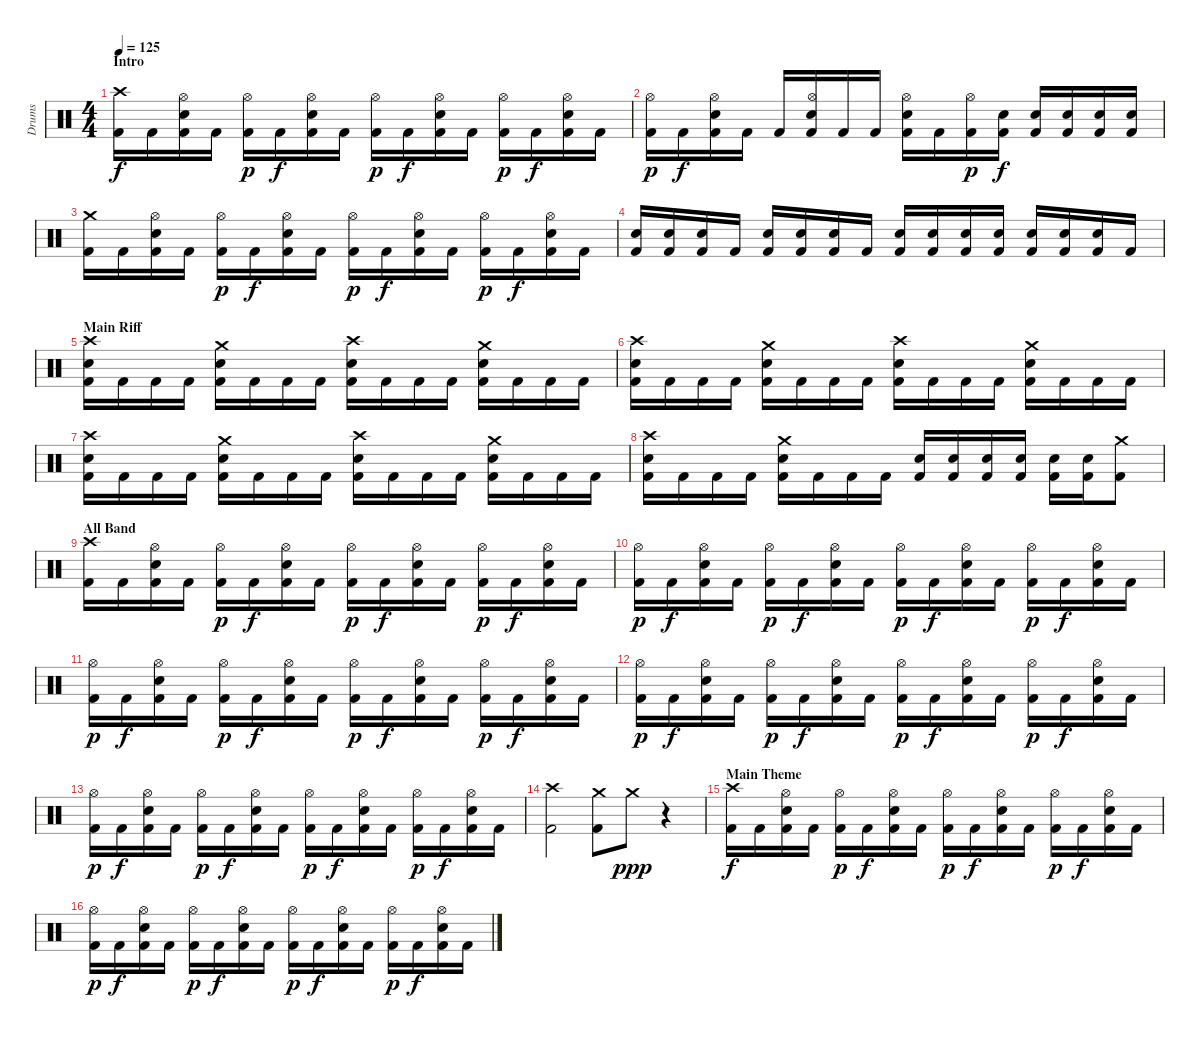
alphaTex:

\track ("Drums" "Drums") {instrument percussion}
\staff {score}
\articulation defaults
\ts (4 4)
\section ("" "Intro")
\tempo 125
\clef neutral
\ks c
("Crash high (hit)" "Kick (hit) 2").16{dy f} "Kick (hit) 2".16 ("Hi-Hat (open)" "Snare (hit) 2" "Kick (hit) 2").16 "Kick (hit) 2".16 ("Hi-Hat (open)" "Kick (hit) 2").16{dy p} "Kick (hit) 2".16{dy f} ("Hi-Hat (open)" "Snare (hit) 2" "Kick (hit) 2").16 "Kick (hit) 2".16 ("Hi-Hat (open)" "Kick (hit) 2").16{dy p} "Kick (hit) 2".16{dy f} ("Hi-Hat (open)" "Snare (hit) 2" "Kick (hit) 2").16 "Kick (hit) 2".16 ("Hi-Hat (open)" "Kick (hit) 2").16{dy p} "Kick (hit) 2".16{dy f} ("Hi-Hat (open)" "Snare (hit) 2" "Kick (hit) 2").16 "Kick (hit) 2".16 |
("Hi-Hat (open)" "Kick (hit) 2").16{dy p} "Kick (hit) 2".16{dy f} ("Hi-Hat (open)" "Snare (hit) 2" "Kick (hit) 2").16 "Kick (hit) 2".16 "Kick (hit) 2".16 ("Hi-Hat (open)" "Snare (hit) 2" "Kick (hit) 2").16 "Kick (hit) 2".16 "Kick (hit) 2".16 ("Hi-Hat (open)" "Snare (hit) 2" "Kick (hit) 2").16 "Kick (hit) 2".16 ("Hi-Hat (open)" "Kick (hit) 2").16{dy p} ("Snare (hit) 2" "Kick (hit) 2").16{dy f} ("Snare (hit) 2" "Kick (hit) 2").16 ("Snare (hit) 2" "Kick (hit) 2").16 ("Snare (hit) 2" "Kick (hit) 2").16 ("Snare (hit) 2" "Kick (hit) 2").16 |
("Crash medium (hit)" "Kick (hit) 2").16 "Kick (hit) 2".16 ("Hi-Hat (open)" "Snare (hit) 2" "Kick (hit) 2").16 "Kick (hit) 2".16 ("Hi-Hat (open)" "Kick (hit) 2").16{dy p} "Kick (hit) 2".16{dy f} ("Hi-Hat (open)" "Snare (hit) 2" "Kick (hit) 2").16 "Kick (hit) 2".16 ("Hi-Hat (open)" "Kick (hit) 2").16{dy p} "Kick (hit) 2".16{dy f} ("Hi-Hat (open)" "Snare (hit) 2" "Kick (hit) 2").16 "Kick (hit) 2".16 ("Hi-Hat (open)" "Kick (hit) 2").16{dy p} "Kick (hit) 2".16{dy f} ("Hi-Hat (open)" "Snare (hit) 2" "Kick (hit) 2").16 "Kick (hit) 2".16 |
("Snare (hit) 2" "Kick (hit) 2").16 ("Snare (hit) 2" "Kick (hit) 2").16 ("Snare (hit) 2" "Kick (hit) 2").16 "Kick (hit) 2".16 ("Snare (hit) 2" "Kick (hit) 2").16 ("Snare (hit) 2" "Kick (hit) 2").16 ("Snare (hit) 2" "Kick (hit) 2").16 "Kick (hit) 2".16 ("Snare (hit) 2" "Kick (hit) 2").16 ("Snare (hit) 2" "Kick (hit) 2").16 ("Snare (hit) 2" "Kick (hit) 2").16 ("Snare (hit) 2" "Kick (hit) 2").16 ("Snare (hit) 2" "Kick (hit) 2").16 ("Snare (hit) 2" "Kick (hit) 2").16 ("Snare (hit) 2" "Kick (hit) 2").16 "Kick (hit) 2".16 |
\section ("" "Main Riff")
("Crash high (hit)" "Snare (hit) 2" "Kick (hit) 2").16 "Kick (hit) 2".16 "Kick (hit) 2".16 "Kick (hit) 2".16 ("Crash medium (hit)" "Snare (hit) 2" "Kick (hit) 2").16 "Kick (hit) 2".16 "Kick (hit) 2".16 "Kick (hit) 2".16 ("Crash high (hit)" "Snare (hit) 2" "Kick (hit) 2").16 "Kick (hit) 2".16 "Kick (hit) 2".16 "Kick (hit) 2".16 ("Crash medium (hit)" "Snare (hit) 2" "Kick (hit) 2").16 "Kick (hit) 2".16 "Kick (hit) 2".16 "Kick (hit) 2".16 |
("Crash high (hit)" "Snare (hit) 2" "Kick (hit) 2").16 "Kick (hit) 2".16 "Kick (hit) 2".16 "Kick (hit) 2".16 ("Crash medium (hit)" "Snare (hit) 2" "Kick (hit) 2").16 "Kick (hit) 2".16 "Kick (hit) 2".16 "Kick (hit) 2".16 ("Crash high (hit)" "Snare (hit) 2" "Kick (hit) 2").16 "Kick (hit) 2".16 "Kick (hit) 2".16 "Kick (hit) 2".16 ("Crash medium (hit)" "Snare (hit) 2" "Kick (hit) 2").16 "Kick (hit) 2".16 "Kick (hit) 2".16 "Kick (hit) 2".16 |
("Crash high (hit)" "Snare (hit) 2" "Kick (hit) 2").16 "Kick (hit) 2".16 "Kick (hit) 2".16 "Kick (hit) 2".16 ("Crash medium (hit)" "Snare (hit) 2" "Kick (hit) 2").16 "Kick (hit) 2".16 "Kick (hit) 2".16 "Kick (hit) 2".16 ("Crash high (hit)" "Snare (hit) 2" "Kick (hit) 2").16 "Kick (hit) 2".16 "Kick (hit) 2".16 "Kick (hit) 2".16 ("Crash medium (hit)" "Snare (hit) 2" "Kick (hit) 2").16 "Kick (hit) 2".16 "Kick (hit) 2".16 "Kick (hit) 2".16 |
("Crash high (hit)" "Snare (hit) 2" "Kick (hit) 2").16 "Kick (hit) 2".16 "Kick (hit) 2".16 "Kick (hit) 2".16 ("Crash medium (hit)" "Snare (hit) 2" "Kick (hit) 2").16 "Kick (hit) 2".16 "Kick (hit) 2".16 "Kick (hit) 2".16 ("Snare (hit) 2" "Kick (hit) 2").16 ("Snare (hit) 2" "Kick (hit) 2").16 ("Snare (hit) 2" "Kick (hit) 2").16 ("Snare (hit) 2" "Kick (hit) 2").16 ("Snare (hit) 2" "Kick (hit) 2").16 ("Snare (hit) 2" "Kick (hit) 2").16 ("Crash medium (hit)" "Kick (hit) 2").8 |
\section ("" "All Band")
("Crash high (hit)" "Kick (hit) 2").16 "Kick (hit) 2".16 ("Hi-Hat (open)" "Snare (hit) 2" "Kick (hit) 2").16 "Kick (hit) 2".16 ("Hi-Hat (open)" "Kick (hit) 2").16{dy p} "Kick (hit) 2".16{dy f} ("Hi-Hat (open)" "Snare (hit) 2" "Kick (hit) 2").16 "Kick (hit) 2".16 ("Hi-Hat (open)" "Kick (hit) 2").16{dy p} "Kick (hit) 2".16{dy f} ("Hi-Hat (open)" "Snare (hit) 2" "Kick (hit) 2").16 "Kick (hit) 2".16 ("Hi-Hat (open)" "Kick (hit) 2").16{dy p} "Kick (hit) 2".16{dy f} ("Hi-Hat (open)" "Snare (hit) 2" "Kick (hit) 2").16 "Kick (hit) 2".16 |
("Hi-Hat (open)" "Kick (hit) 2").16{dy p} "Kick (hit) 2".16{dy f} ("Hi-Hat (open)" "Snare (hit) 2" "Kick (hit) 2").16 "Kick (hit) 2".16 ("Hi-Hat (open)" "Kick (hit) 2").16{dy p} "Kick (hit) 2".16{dy f} ("Hi-Hat (open)" "Snare (hit) 2" "Kick (hit) 2").16 "Kick (hit) 2".16 ("Hi-Hat (open)" "Kick (hit) 2").16{dy p} "Kick (hit) 2".16{dy f} ("Hi-Hat (open)" "Snare (hit) 2" "Kick (hit) 2").16 "Kick (hit) 2".16 ("Hi-Hat (open)" "Kick (hit) 2").16{dy p} "Kick (hit) 2".16{dy f} ("Hi-Hat (open)" "Snare (hit) 2" "Kick (hit) 2").16 "Kick (hit) 2".16 |
("Hi-Hat (open)" "Kick (hit) 2").16{dy p} "Kick (hit) 2".16{dy f} ("Hi-Hat (open)" "Snare (hit) 2" "Kick (hit) 2").16 "Kick (hit) 2".16 ("Hi-Hat (open)" "Kick (hit) 2").16{dy p} "Kick (hit) 2".16{dy f} ("Hi-Hat (open)" "Snare (hit) 2" "Kick (hit) 2").16 "Kick (hit) 2".16 ("Hi-Hat (open)" "Kick (hit) 2").16{dy p} "Kick (hit) 2".16{dy f} ("Hi-Hat (open)" "Snare (hit) 2" "Kick (hit) 2").16 "Kick (hit) 2".16 ("Hi-Hat (open)" "Kick (hit) 2").16{dy p} "Kick (hit) 2".16{dy f} ("Hi-Hat (open)" "Snare (hit) 2" "Kick (hit) 2").16 "Kick (hit) 2".16 |
("Hi-Hat (open)" "Kick (hit) 2").16{dy p} "Kick (hit) 2".16{dy f} ("Hi-Hat (open)" "Snare (hit) 2" "Kick (hit) 2").16 "Kick (hit) 2".16 ("Hi-Hat (open)" "Kick (hit) 2").16{dy p} "Kick (hit) 2".16{dy f} ("Hi-Hat (open)" "Snare (hit) 2" "Kick (hit) 2").16 "Kick (hit) 2".16 ("Hi-Hat (open)" "Kick (hit) 2").16{dy p} "Kick (hit) 2".16{dy f} ("Hi-Hat (open)" "Snare (hit) 2" "Kick (hit) 2").16 "Kick (hit) 2".16 ("Hi-Hat (open)" "Kick (hit) 2").16{dy p} "Kick (hit) 2".16{dy f} ("Hi-Hat (open)" "Snare (hit) 2" "Kick (hit) 2").16 "Kick (hit) 2".16 |
("Hi-Hat (open)" "Kick (hit) 2").16{dy p} "Kick (hit) 2".16{dy f} ("Hi-Hat (open)" "Snare (hit) 2" "Kick (hit) 2").16 "Kick (hit) 2".16 ("Hi-Hat (open)" "Kick (hit) 2").16{dy p} "Kick (hit) 2".16{dy f} ("Hi-Hat (open)" "Snare (hit) 2" "Kick (hit) 2").16 "Kick (hit) 2".16 ("Hi-Hat (open)" "Kick (hit) 2").16{dy p} "Kick (hit) 2".16{dy f} ("Hi-Hat (open)" "Snare (hit) 2" "Kick (hit) 2").16 "Kick (hit) 2".16 ("Hi-Hat (open)" "Kick (hit) 2").16{dy p} "Kick (hit) 2".16{dy f} ("Hi-Hat (open)" "Snare (hit) 2" "Kick (hit) 2").16 "Kick (hit) 2".16 |
("Crash high (hit)" "Kick (hit) 2").2 ("Crash medium (hit)" "Kick (hit) 2").8 "Crash medium (hit)".8{dy ppp} r.4 |
\section ("" "Main Theme")
("Crash high (hit)" "Kick (hit) 2").16{dy f} "Kick (hit) 2".16 ("Hi-Hat (open)" "Snare (hit) 2" "Kick (hit) 2").16 "Kick (hit) 2".16 ("Hi-Hat (open)" "Kick (hit) 2").16{dy p} "Kick (hit) 2".16{dy f} ("Hi-Hat (open)" "Snare (hit) 2" "Kick (hit) 2").16 "Kick (hit) 2".16 ("Hi-Hat (open)" "Kick (hit) 2").16{dy p} "Kick (hit) 2".16{dy f} ("Hi-Hat (open)" "Snare (hit) 2" "Kick (hit) 2").16 "Kick (hit) 2".16 ("Hi-Hat (open)" "Kick (hit) 2").16{dy p} "Kick (hit) 2".16{dy f} ("Hi-Hat (open)" "Snare (hit) 2" "Kick (hit) 2").16 "Kick (hit) 2".16 |
("Hi-Hat (open)" "Kick (hit) 2").16{dy p} "Kick (hit) 2".16{dy f} ("Hi-Hat (open)" "Snare (hit) 2" "Kick (hit) 2").16 "Kick (hit) 2".16 ("Hi-Hat (open)" "Kick (hit) 2").16{dy p} "Kick (hit) 2".16{dy f} ("Hi-Hat (open)" "Snare (hit) 2" "Kick (hit) 2").16 "Kick (hit) 2".16 ("Hi-Hat (open)" "Kick (hit) 2").16{dy p} "Kick (hit) 2".16{dy f} ("Hi-Hat (open)" "Snare (hit) 2" "Kick (hit) 2").16 "Kick (hit) 2".16 ("Hi-Hat (open)" "Kick (hit) 2").16{dy p} "Kick (hit) 2".16{dy f} ("Hi-Hat (open)" "Snare (hit) 2" "Kick (hit) 2").16 "Kick (hit) 2".16
